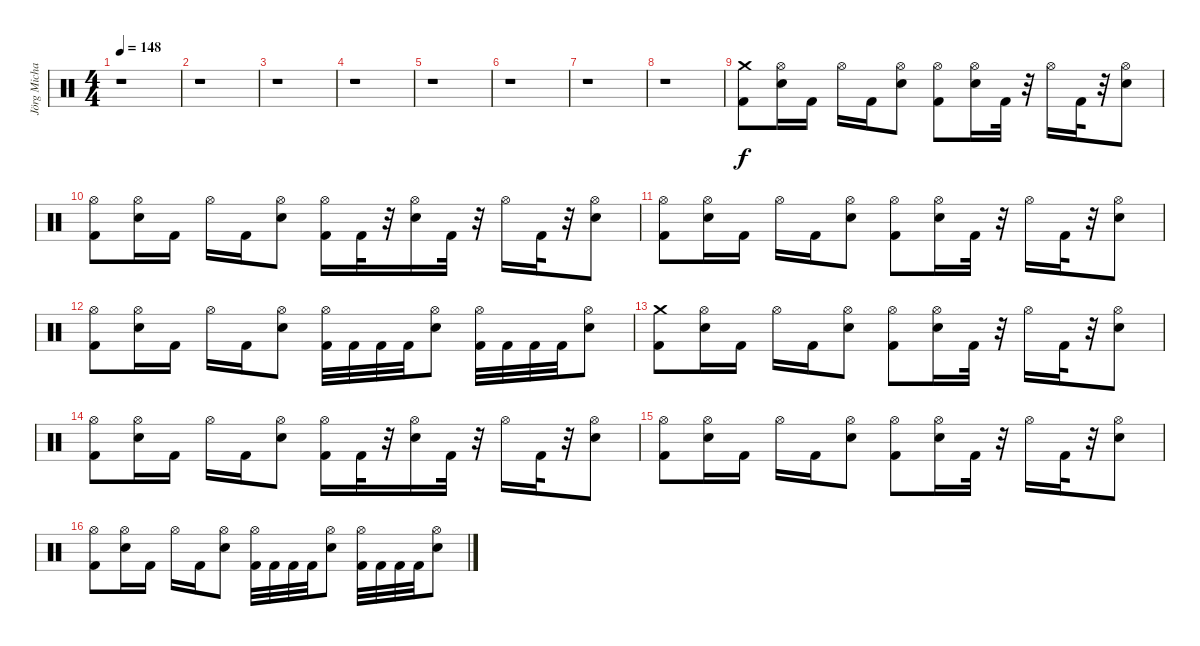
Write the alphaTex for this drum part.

\track ("Jörg Michael" "Jörg Micha") {instrument percussion}
\staff {score}
\articulation defaults
\ts (4 4)
\tempo 148
\clef neutral
\ks c
r.1{dy f} |
r.1 |
r.1 |
r.1 |
r.1 |
r.1 |
r.1 |
r.1 |
("Crash medium (hit)" "Kick (hit) 2").8 ("Hi-Hat (open)" "Electric Snare (hit)").16 "Kick (hit) 2".16 "Hi-Hat (open)".16 "Kick (hit) 2".16 ("Hi-Hat (open)" "Electric Snare (hit)").8 ("Hi-Hat (open)" "Kick (hit) 2").8 ("Hi-Hat (open)" "Electric Snare (hit)").16 "Kick (hit) 2".32 r.32 "Hi-Hat (open)".16 "Kick (hit) 2".32 r.32 ("Hi-Hat (open)" "Electric Snare (hit)").8 |
("Hi-Hat (open)" "Kick (hit) 2").8 ("Hi-Hat (open)" "Electric Snare (hit)").16 "Kick (hit) 2".16 "Hi-Hat (open)".16 "Kick (hit) 2".16 ("Hi-Hat (open)" "Electric Snare (hit)").8 ("Hi-Hat (open)" "Kick (hit) 2").16 "Kick (hit) 2".32 r.32 ("Hi-Hat (open)" "Electric Snare (hit)").16 "Kick (hit) 2".32 r.32 "Hi-Hat (open)".16 "Kick (hit) 2".32 r.32 ("Hi-Hat (open)" "Electric Snare (hit)").8 |
("Hi-Hat (open)" "Kick (hit) 2").8 ("Hi-Hat (open)" "Electric Snare (hit)").16 "Kick (hit) 2".16 "Hi-Hat (open)".16 "Kick (hit) 2".16 ("Hi-Hat (open)" "Electric Snare (hit)").8 ("Hi-Hat (open)" "Kick (hit) 2").8 ("Hi-Hat (open)" "Electric Snare (hit)").16 "Kick (hit) 2".32 r.32 "Hi-Hat (open)".16 "Kick (hit) 2".32 r.32 ("Hi-Hat (open)" "Electric Snare (hit)").8 |
("Hi-Hat (open)" "Kick (hit) 2").8 ("Hi-Hat (open)" "Electric Snare (hit)").16 "Kick (hit) 2".16 "Hi-Hat (open)".16 "Kick (hit) 2".16 ("Hi-Hat (open)" "Electric Snare (hit)").8 ("Hi-Hat (open)" "Kick (hit) 2").32 "Kick (hit) 2".32 "Kick (hit) 2".32 "Kick (hit) 2".32 ("Hi-Hat (open)" "Electric Snare (hit)").8 ("Kick (hit) 2" "Hi-Hat (open)").32 "Kick (hit) 2".32 "Kick (hit) 2".32 "Kick (hit) 2".32 ("Hi-Hat (open)" "Electric Snare (hit)").8 |
("Crash medium (hit)" "Kick (hit) 2").8 ("Hi-Hat (open)" "Electric Snare (hit)").16 "Kick (hit) 2".16 "Hi-Hat (open)".16 "Kick (hit) 2".16 ("Hi-Hat (open)" "Electric Snare (hit)").8 ("Hi-Hat (open)" "Kick (hit) 2").8 ("Hi-Hat (open)" "Electric Snare (hit)").16 "Kick (hit) 2".32 r.32 "Hi-Hat (open)".16 "Kick (hit) 2".32 r.32 ("Hi-Hat (open)" "Electric Snare (hit)").8 |
("Hi-Hat (open)" "Kick (hit) 2").8 ("Hi-Hat (open)" "Electric Snare (hit)").16 "Kick (hit) 2".16 "Hi-Hat (open)".16 "Kick (hit) 2".16 ("Hi-Hat (open)" "Electric Snare (hit)").8 ("Hi-Hat (open)" "Kick (hit) 2").16 "Kick (hit) 2".32 r.32 ("Hi-Hat (open)" "Electric Snare (hit)").16 "Kick (hit) 2".32 r.32 "Hi-Hat (open)".16 "Kick (hit) 2".32 r.32 ("Hi-Hat (open)" "Electric Snare (hit)").8 |
("Hi-Hat (open)" "Kick (hit) 2").8 ("Hi-Hat (open)" "Electric Snare (hit)").16 "Kick (hit) 2".16 "Hi-Hat (open)".16 "Kick (hit) 2".16 ("Hi-Hat (open)" "Electric Snare (hit)").8 ("Hi-Hat (open)" "Kick (hit) 2").8 ("Hi-Hat (open)" "Electric Snare (hit)").16 "Kick (hit) 2".32 r.32 "Hi-Hat (open)".16 "Kick (hit) 2".32 r.32 ("Hi-Hat (open)" "Electric Snare (hit)").8 |
("Hi-Hat (open)" "Kick (hit) 2").8 ("Hi-Hat (open)" "Electric Snare (hit)").16 "Kick (hit) 2".16 "Hi-Hat (open)".16 "Kick (hit) 2".16 ("Hi-Hat (open)" "Electric Snare (hit)").8 ("Hi-Hat (open)" "Kick (hit) 2").32 "Kick (hit) 2".32 "Kick (hit) 2".32 "Kick (hit) 2".32 ("Hi-Hat (open)" "Electric Snare (hit)").8 ("Kick (hit) 2" "Hi-Hat (open)").32 "Kick (hit) 2".32 "Kick (hit) 2".32 "Kick (hit) 2".32 ("Hi-Hat (open)" "Electric Snare (hit)").8
